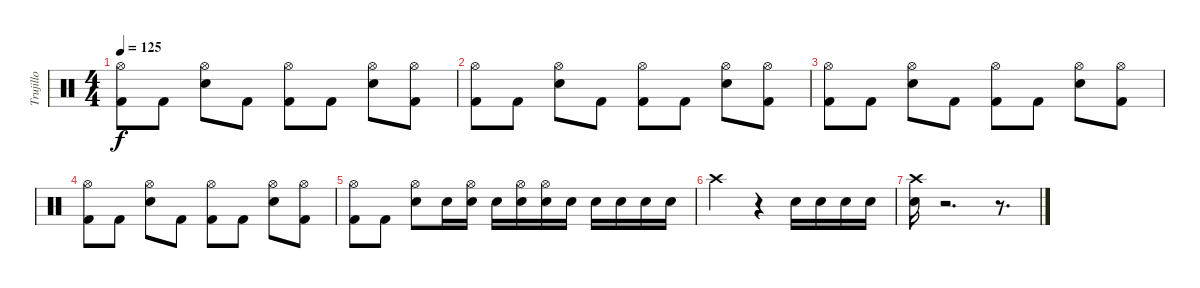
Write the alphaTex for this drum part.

\track ("Trujillo" "Trujillo") {instrument percussion}
\staff {score}
\articulation defaults
\ts (4 4)
\tempo 125
\clef neutral
\ks c
("Hi-Hat (open)" "Kick (hit) 2").8{dy f} "Kick (hit) 2".8 ("Hi-Hat (open)" "Electric Snare (hit)").8 "Kick (hit) 2".8 ("Hi-Hat (open)" "Kick (hit) 2").8 "Kick (hit) 2".8 ("Hi-Hat (open)" "Electric Snare (hit)").8 ("Hi-Hat (open)" "Kick (hit) 2").8 |
("Hi-Hat (open)" "Kick (hit) 2").8 "Kick (hit) 2".8 ("Hi-Hat (open)" "Electric Snare (hit)").8 "Kick (hit) 2".8 ("Hi-Hat (open)" "Kick (hit) 2").8 "Kick (hit) 2".8 ("Hi-Hat (open)" "Electric Snare (hit)").8 ("Hi-Hat (open)" "Kick (hit) 2").8 |
("Hi-Hat (open)" "Kick (hit) 2").8 "Kick (hit) 2".8 ("Hi-Hat (open)" "Electric Snare (hit)").8 "Kick (hit) 2".8 ("Hi-Hat (open)" "Kick (hit) 2").8 "Kick (hit) 2".8 ("Hi-Hat (open)" "Electric Snare (hit)").8 ("Hi-Hat (open)" "Kick (hit) 2").8 |
("Hi-Hat (open)" "Kick (hit) 2").8 "Kick (hit) 2".8 ("Hi-Hat (open)" "Electric Snare (hit)").8 "Kick (hit) 2".8 ("Hi-Hat (open)" "Kick (hit) 2").8 "Kick (hit) 2".8 ("Hi-Hat (open)" "Electric Snare (hit)").8 ("Hi-Hat (open)" "Kick (hit) 2").8 |
("Hi-Hat (open)" "Kick (hit) 2").8 "Kick (hit) 2".8 ("Hi-Hat (open)" "Electric Snare (hit)").8 "Electric Snare (hit)".16 ("Hi-Hat (open)"{x} "Electric Snare (hit)").16 "Electric Snare (hit)".16 ("Hi-Hat (open)"{x} "Electric Snare (hit)").16 ("Hi-Hat (open)"{x} "Electric Snare (hit)").16 "Electric Snare (hit)".16 "Electric Snare (hit)".16 "Electric Snare (hit)".16 "Electric Snare (hit)".16 "Electric Snare (hit)".16 |
"Crash high (hit)".2 r.4 "Electric Snare (hit)".16 "Electric Snare (hit)".16 "Electric Snare (hit)".16 "Electric Snare (hit)".16 |
("Crash high (hit)" "Electric Snare (hit)").16 r.2{d} r.8{d}
